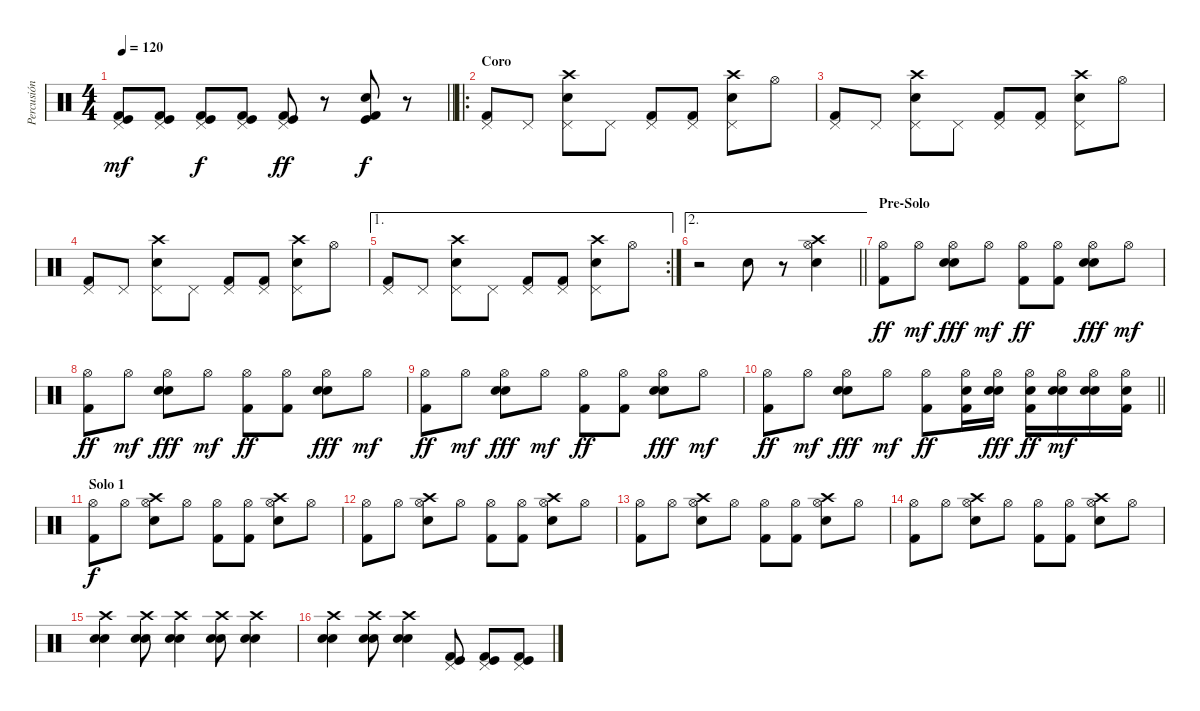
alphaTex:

\track ("Percusión" "Percusión") {instrument percussion}
\staff {score}
\articulation defaults
\ts (4 4)
\tempo 120
\clef neutral
\barLineRight lightlight
\ks c
("Kick (hit)" "Kick (hit) 2" "Pedal Hi-Hat (hit)").8{dy mf} ("Kick (hit)" "Kick (hit) 2" "Pedal Hi-Hat (hit)").8 ("Kick (hit)" "Kick (hit) 2" "Pedal Hi-Hat (hit)").8{dy f} ("Kick (hit)" "Kick (hit) 2" "Pedal Hi-Hat (hit)").8 ("Kick (hit)" "Kick (hit) 2" "Pedal Hi-Hat (hit)").8{dy ff} r.8 ("Kick (hit)" "Snare (hit) 2" "Kick (hit) 2").8{dy f} r.8 |
\ro
\section ("" "Coro")
("Pedal Hi-Hat (hit)" "Kick (hit) 2").8 "Pedal Hi-Hat (hit)".8 ("Pedal Hi-Hat (hit)" "Crash high (hit)" "Snare (hit) 2").8 "Pedal Hi-Hat (hit)".8 ("Pedal Hi-Hat (hit)" "Kick (hit) 2").8 ("Pedal Hi-Hat (hit)" "Kick (hit) 2").8 ("Pedal Hi-Hat (hit)" "Crash high (hit)" "Snare (hit) 2").8 "Hi-Hat (open)".8 |
("Pedal Hi-Hat (hit)" "Kick (hit) 2").8 "Pedal Hi-Hat (hit)".8 ("Pedal Hi-Hat (hit)" "Crash high (hit)" "Snare (hit) 2").8 "Pedal Hi-Hat (hit)".8 ("Pedal Hi-Hat (hit)" "Kick (hit) 2").8 ("Pedal Hi-Hat (hit)" "Kick (hit) 2").8 ("Pedal Hi-Hat (hit)" "Crash high (hit)" "Snare (hit) 2").8 "Hi-Hat (open)".8 |
("Pedal Hi-Hat (hit)" "Kick (hit) 2").8 "Pedal Hi-Hat (hit)".8 ("Pedal Hi-Hat (hit)" "Crash high (hit)" "Snare (hit) 2").8 "Pedal Hi-Hat (hit)".8 ("Pedal Hi-Hat (hit)" "Kick (hit) 2").8 ("Pedal Hi-Hat (hit)" "Kick (hit) 2").8 ("Pedal Hi-Hat (hit)" "Crash high (hit)" "Snare (hit) 2").8 "Hi-Hat (open)".8 |
\ae 1
\rc 2
("Pedal Hi-Hat (hit)" "Kick (hit) 2").8 "Pedal Hi-Hat (hit)".8 ("Pedal Hi-Hat (hit)" "Crash high (hit)" "Snare (hit) 2").8 "Pedal Hi-Hat (hit)".8 ("Pedal Hi-Hat (hit)" "Kick (hit) 2").8 ("Pedal Hi-Hat (hit)" "Kick (hit) 2").8 ("Pedal Hi-Hat (hit)" "Crash high (hit)" "Snare (hit) 2").8 "Hi-Hat (open)".8 |
\ae 2
\barLineRight lightlight
r.2 "Snare (hit) 2".8 r.8 ("Crash high (hit)" "Hi-Hat (open)" "Electric Snare (hit)").4 |
\section ("" "Pre-Solo")
("Hi-Hat (open)" "Kick (hit) 2").8{dy ff} "Hi-Hat (open)".8{dy mf} ("Hi-Hat (open)" "Electric Snare (hit)" "Snare (hit) 2").8{dy fff} "Hi-Hat (open)".8{dy mf} ("Hi-Hat (open)" "Kick (hit) 2").8{dy ff} ("Hi-Hat (open)" "Kick (hit) 2").8 ("Hi-Hat (open)" "Electric Snare (hit)" "Snare (hit) 2").8{dy fff} "Hi-Hat (open)".8{dy mf} |
("Hi-Hat (open)" "Kick (hit) 2").8{dy ff} "Hi-Hat (open)".8{dy mf} ("Hi-Hat (open)" "Electric Snare (hit)" "Snare (hit) 2").8{dy fff} "Hi-Hat (open)".8{dy mf} ("Hi-Hat (open)" "Kick (hit) 2").8{dy ff} ("Hi-Hat (open)" "Kick (hit) 2").8 ("Hi-Hat (open)" "Electric Snare (hit)" "Snare (hit) 2").8{dy fff} "Hi-Hat (open)".8{dy mf} |
("Hi-Hat (open)" "Kick (hit) 2").8{dy ff} "Hi-Hat (open)".8{dy mf} ("Hi-Hat (open)" "Electric Snare (hit)" "Snare (hit) 2").8{dy fff} "Hi-Hat (open)".8{dy mf} ("Hi-Hat (open)" "Kick (hit) 2").8{dy ff} ("Hi-Hat (open)" "Kick (hit) 2").8 ("Hi-Hat (open)" "Electric Snare (hit)" "Snare (hit) 2").8{dy fff} "Hi-Hat (open)".8{dy mf} |
\barLineRight lightlight
("Hi-Hat (open)" "Kick (hit) 2").8{dy ff} "Hi-Hat (open)".8{dy mf} ("Hi-Hat (open)" "Electric Snare (hit)" "Snare (hit) 2").8{dy fff} "Hi-Hat (open)".8{dy mf} ("Hi-Hat (open)" "Kick (hit) 2").8{dy ff} ("Hi-Hat (open)" "Snare (hit) 2" "Kick (hit) 2").16 ("Hi-Hat (open)" "Electric Snare (hit)" "Snare (hit) 2").16{dy fff} ("Hi-Hat (open)" "Electric Snare (hit)" "Kick (hit) 2").16{dy ff} ("Hi-Hat (open)" "Electric Snare (hit)" "Snare (hit) 2").16{dy mf} ("Hi-Hat (open)" "Electric Snare (hit)" "Snare (hit) 2").16 ("Hi-Hat (open)" "Kick (hit) 2" "Snare (hit) 2").16 |
\section ("" "Solo 1")
("Hi-Hat (open)" "Kick (hit) 2").8{dy f} "Hi-Hat (open)".8 ("Hi-Hat (open)" "Electric Snare (hit)" "Crash high (hit)").8 "Hi-Hat (open)".8 ("Hi-Hat (open)" "Kick (hit) 2").8 ("Hi-Hat (open)" "Kick (hit) 2").8 ("Hi-Hat (open)" "Electric Snare (hit)" "Crash high (hit)").8 "Hi-Hat (open)".8 |
("Hi-Hat (open)" "Kick (hit) 2").8 "Hi-Hat (open)".8 ("Hi-Hat (open)" "Electric Snare (hit)" "Crash high (hit)").8 "Hi-Hat (open)".8 ("Hi-Hat (open)" "Kick (hit) 2").8 ("Hi-Hat (open)" "Kick (hit) 2").8 ("Hi-Hat (open)" "Electric Snare (hit)" "Crash high (hit)").8 "Hi-Hat (open)".8 |
("Hi-Hat (open)" "Kick (hit) 2").8 "Hi-Hat (open)".8 ("Hi-Hat (open)" "Electric Snare (hit)" "Crash high (hit)").8 "Hi-Hat (open)".8 ("Hi-Hat (open)" "Kick (hit) 2").8 ("Hi-Hat (open)" "Kick (hit) 2").8 ("Hi-Hat (open)" "Electric Snare (hit)" "Crash high (hit)").8 "Hi-Hat (open)".8 |
("Hi-Hat (open)" "Kick (hit) 2").8 "Hi-Hat (open)".8 ("Hi-Hat (open)" "Electric Snare (hit)" "Crash high (hit)").8 "Hi-Hat (open)".8 ("Hi-Hat (open)" "Kick (hit) 2").8 ("Hi-Hat (open)" "Kick (hit) 2").8 ("Hi-Hat (open)" "Electric Snare (hit)" "Crash high (hit)").8 "Hi-Hat (open)".8 |
("Electric Snare (hit)" "Crash high (hit)" "Snare (hit) 2").4 ("Electric Snare (hit)" "Crash high (hit)" "Snare (hit) 2").8 ("Electric Snare (hit)" "Crash high (hit)" "Snare (hit) 2").4 ("Electric Snare (hit)" "Crash high (hit)" "Snare (hit) 2").8 ("Electric Snare (hit)" "Crash high (hit)" "Snare (hit) 2").4 |
("Electric Snare (hit)" "Crash high (hit)" "Snare (hit) 2").4 ("Electric Snare (hit)" "Crash high (hit)" "Snare (hit) 2").8 ("Electric Snare (hit)" "Crash high (hit)" "Snare (hit) 2").4 ("Kick (hit)" "Kick (hit) 2" "Pedal Hi-Hat (hit)").8 ("Kick (hit)" "Kick (hit) 2" "Pedal Hi-Hat (hit)").8 ("Kick (hit)" "Kick (hit) 2" "Pedal Hi-Hat (hit)").8
